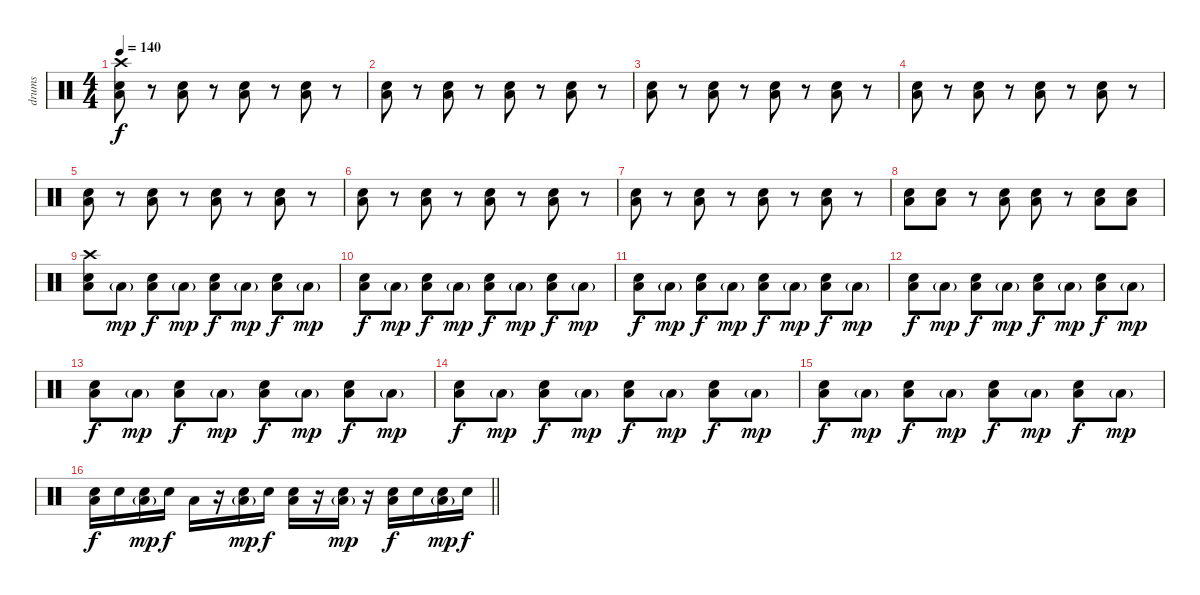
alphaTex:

\track ("drums" "drums") {instrument percussion}
\staff {score}
\articulation defaults
\ts (4 4)
\tempo 140
\clef neutral
\ks c
("Electric Snare (hit)" "Low Floor Tom (hit)" "Crash high (hit)").8{dy f} r.8 ("Electric Snare (hit)" "Low Floor Tom (hit)").8 r.8 ("Electric Snare (hit)" "Low Floor Tom (hit)").8 r.8 ("Electric Snare (hit)" "Low Floor Tom (hit)").8 r.8 |
("Electric Snare (hit)" "Low Floor Tom (hit)").8 r.8 ("Electric Snare (hit)" "Low Floor Tom (hit)").8 r.8 ("Electric Snare (hit)" "Low Floor Tom (hit)").8 r.8 ("Electric Snare (hit)" "Low Floor Tom (hit)").8 r.8 |
("Electric Snare (hit)" "Low Floor Tom (hit)").8 r.8 ("Electric Snare (hit)" "Low Floor Tom (hit)").8 r.8 ("Electric Snare (hit)" "Low Floor Tom (hit)").8 r.8 ("Electric Snare (hit)" "Low Floor Tom (hit)").8 r.8 |
("Electric Snare (hit)" "Low Floor Tom (hit)").8 r.8 ("Electric Snare (hit)" "Low Floor Tom (hit)").8 r.8 ("Electric Snare (hit)" "Low Floor Tom (hit)").8 r.8 ("Electric Snare (hit)" "Low Floor Tom (hit)").8 r.8 |
("Electric Snare (hit)" "Low Floor Tom (hit)").8 r.8 ("Electric Snare (hit)" "Low Floor Tom (hit)").8 r.8 ("Electric Snare (hit)" "Low Floor Tom (hit)").8 r.8 ("Electric Snare (hit)" "Low Floor Tom (hit)").8 r.8 |
("Electric Snare (hit)" "Low Floor Tom (hit)").8 r.8 ("Electric Snare (hit)" "Low Floor Tom (hit)").8 r.8 ("Electric Snare (hit)" "Low Floor Tom (hit)").8 r.8 ("Electric Snare (hit)" "Low Floor Tom (hit)").8 r.8 |
("Electric Snare (hit)" "Low Floor Tom (hit)").8 r.8 ("Electric Snare (hit)" "Low Floor Tom (hit)").8 r.8 ("Electric Snare (hit)" "Low Floor Tom (hit)").8 r.8 ("Electric Snare (hit)" "Low Floor Tom (hit)").8 r.8 |
("Electric Snare (hit)" "Low Floor Tom (hit)").8 ("Electric Snare (hit)" "Low Floor Tom (hit)").8 r.8 ("Electric Snare (hit)" "Low Floor Tom (hit)").8 ("Electric Snare (hit)" "Low Floor Tom (hit)").8 r.8 ("Electric Snare (hit)" "Low Floor Tom (hit)").8 ("Electric Snare (hit)" "Low Floor Tom (hit)").8 |
("Electric Snare (hit)" "Low Floor Tom (hit)" "Crash high (hit)").8 "Low Floor Tom (hit)"{g}.8{dy mp} ("Electric Snare (hit)" "Low Floor Tom (hit)").8{dy f} "Low Floor Tom (hit)"{g}.8{dy mp} ("Electric Snare (hit)" "Low Floor Tom (hit)").8{dy f} "Low Floor Tom (hit)"{g}.8{dy mp} ("Electric Snare (hit)" "Low Floor Tom (hit)").8{dy f} "Low Floor Tom (hit)"{g}.8{dy mp} |
("Electric Snare (hit)" "Low Floor Tom (hit)").8{dy f} "Low Floor Tom (hit)"{g}.8{dy mp} ("Electric Snare (hit)" "Low Floor Tom (hit)").8{dy f} "Low Floor Tom (hit)"{g}.8{dy mp} ("Electric Snare (hit)" "Low Floor Tom (hit)").8{dy f} "Low Floor Tom (hit)"{g}.8{dy mp} ("Electric Snare (hit)" "Low Floor Tom (hit)").8{dy f} "Low Floor Tom (hit)"{g}.8{dy mp} |
("Electric Snare (hit)" "Low Floor Tom (hit)").8{dy f} "Low Floor Tom (hit)"{g}.8{dy mp} ("Electric Snare (hit)" "Low Floor Tom (hit)").8{dy f} "Low Floor Tom (hit)"{g}.8{dy mp} ("Electric Snare (hit)" "Low Floor Tom (hit)").8{dy f} "Low Floor Tom (hit)"{g}.8{dy mp} ("Electric Snare (hit)" "Low Floor Tom (hit)").8{dy f} "Low Floor Tom (hit)"{g}.8{dy mp} |
("Electric Snare (hit)" "Low Floor Tom (hit)").8{dy f} "Low Floor Tom (hit)"{g}.8{dy mp} ("Electric Snare (hit)" "Low Floor Tom (hit)").8{dy f} "Low Floor Tom (hit)"{g}.8{dy mp} ("Electric Snare (hit)" "Low Floor Tom (hit)").8{dy f} "Low Floor Tom (hit)"{g}.8{dy mp} ("Electric Snare (hit)" "Low Floor Tom (hit)").8{dy f} "Low Floor Tom (hit)"{g}.8{dy mp} |
("Electric Snare (hit)" "Low Floor Tom (hit)").8{dy f} "Low Floor Tom (hit)"{g}.8{dy mp} ("Electric Snare (hit)" "Low Floor Tom (hit)").8{dy f} "Low Floor Tom (hit)"{g}.8{dy mp} ("Electric Snare (hit)" "Low Floor Tom (hit)").8{dy f} "Low Floor Tom (hit)"{g}.8{dy mp} ("Electric Snare (hit)" "Low Floor Tom (hit)").8{dy f} "Low Floor Tom (hit)"{g}.8{dy mp} |
("Electric Snare (hit)" "Low Floor Tom (hit)").8{dy f} "Low Floor Tom (hit)"{g}.8{dy mp} ("Electric Snare (hit)" "Low Floor Tom (hit)").8{dy f} "Low Floor Tom (hit)"{g}.8{dy mp} ("Electric Snare (hit)" "Low Floor Tom (hit)").8{dy f} "Low Floor Tom (hit)"{g}.8{dy mp} ("Electric Snare (hit)" "Low Floor Tom (hit)").8{dy f} "Low Floor Tom (hit)"{g}.8{dy mp} |
("Electric Snare (hit)" "Low Floor Tom (hit)").8{dy f} "Low Floor Tom (hit)"{g}.8{dy mp} ("Electric Snare (hit)" "Low Floor Tom (hit)").8{dy f} "Low Floor Tom (hit)"{g}.8{dy mp} ("Electric Snare (hit)" "Low Floor Tom (hit)").8{dy f} "Low Floor Tom (hit)"{g}.8{dy mp} ("Electric Snare (hit)" "Low Floor Tom (hit)").8{dy f} "Low Floor Tom (hit)"{g}.8{dy mp} |
\barLineRight lightlight
("Electric Snare (hit)" "Low Floor Tom (hit)").16{dy f} "Electric Snare (hit)".16 ("Electric Snare (hit)" "Low Floor Tom (hit)"{g}).16{dy mp} "Electric Snare (hit)".16{dy f} "Low Floor Tom (hit)".16 r.16 ("Electric Snare (hit)" "Low Floor Tom (hit)"{g}).16{dy mp} "Electric Snare (hit)".16{dy f} ("Electric Snare (hit)" "Low Floor Tom (hit)").16 r.16 ("Electric Snare (hit)" "Low Floor Tom (hit)"{g}).16{dy mp} r.16 ("Electric Snare (hit)" "Low Floor Tom (hit)").16{dy f} "Electric Snare (hit)".16 ("Electric Snare (hit)" "Low Floor Tom (hit)"{g}).16{dy mp} "Electric Snare (hit)".16{dy f}
